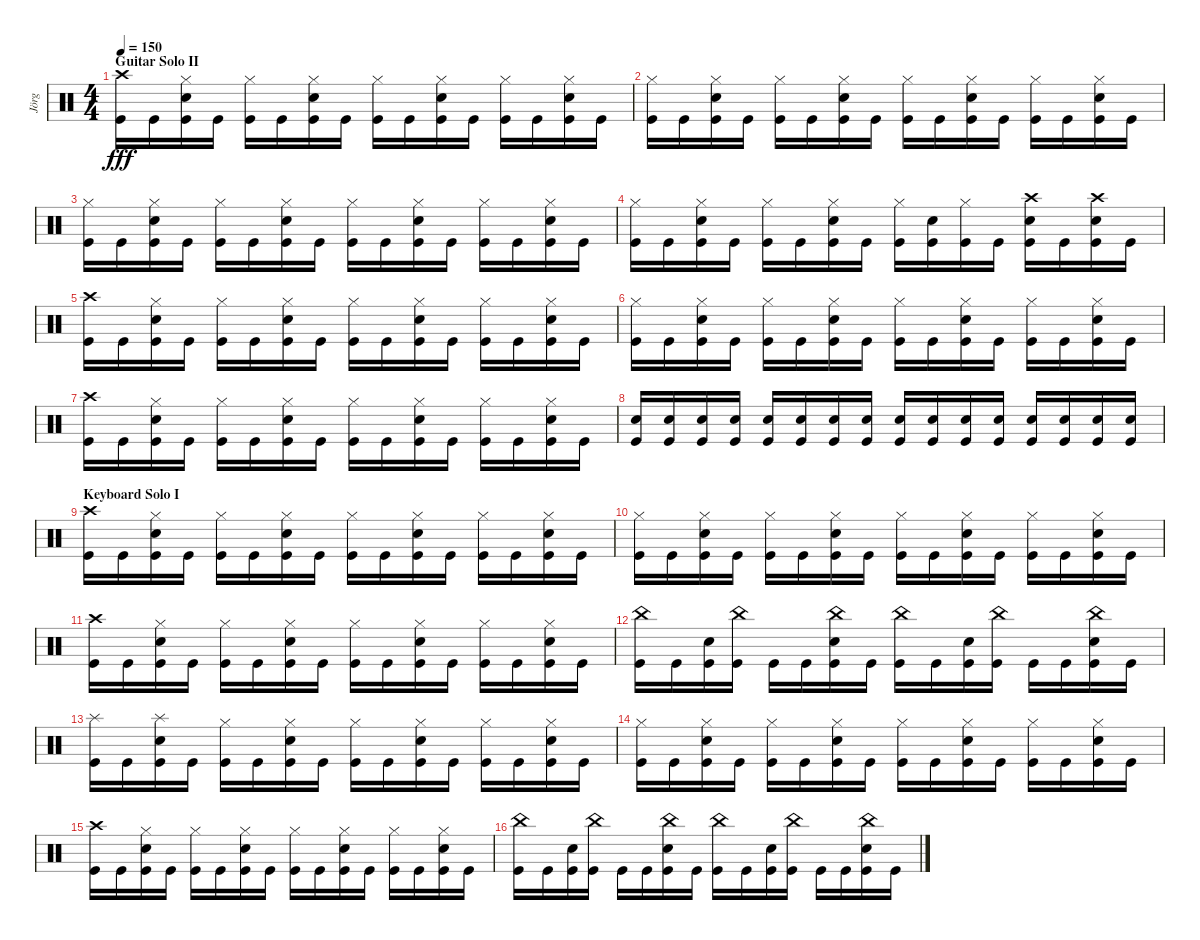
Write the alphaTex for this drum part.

\track ("Jörg" "Jörg") {instrument percussion}
\staff {score}
\articulation defaults
\ts (4 4)
\section ("" "Guitar Solo II")
\tempo 150
\clef neutral
\ks c
("Crash high (hit)" "Kick (hit)").16{dy fff} "Kick (hit)".16 ("Snare (hit) 2" "Hi-Hat (closed)" "Kick (hit)").16 "Kick (hit)".16 ("Hi-Hat (closed)" "Kick (hit)").16 "Kick (hit)".16 ("Snare (hit) 2" "Hi-Hat (closed)" "Kick (hit)").16 "Kick (hit)".16 ("Hi-Hat (closed)" "Kick (hit)").16 "Kick (hit)".16 ("Snare (hit) 2" "Hi-Hat (closed)" "Kick (hit)").16 "Kick (hit)".16 ("Hi-Hat (closed)" "Kick (hit)").16 "Kick (hit)".16 ("Snare (hit) 2" "Hi-Hat (closed)" "Kick (hit)").16 "Kick (hit)".16 |
("Hi-Hat (closed)" "Kick (hit)").16 "Kick (hit)".16 ("Snare (hit) 2" "Hi-Hat (closed)" "Kick (hit)").16 "Kick (hit)".16 ("Hi-Hat (closed)" "Kick (hit)").16 "Kick (hit)".16 ("Snare (hit) 2" "Hi-Hat (closed)" "Kick (hit)").16 "Kick (hit)".16 ("Hi-Hat (closed)" "Kick (hit)").16 "Kick (hit)".16 ("Snare (hit) 2" "Hi-Hat (closed)" "Kick (hit)").16 "Kick (hit)".16 ("Hi-Hat (closed)" "Kick (hit)").16 "Kick (hit)".16 ("Snare (hit) 2" "Hi-Hat (closed)" "Kick (hit)").16 "Kick (hit)".16 |
("Hi-Hat (closed)" "Kick (hit)").16 "Kick (hit)".16 ("Snare (hit) 2" "Hi-Hat (closed)" "Kick (hit)").16 "Kick (hit)".16 ("Hi-Hat (closed)" "Kick (hit)").16 "Kick (hit)".16 ("Snare (hit) 2" "Hi-Hat (closed)" "Kick (hit)").16 "Kick (hit)".16 ("Hi-Hat (closed)" "Kick (hit)").16 "Kick (hit)".16 ("Snare (hit) 2" "Hi-Hat (closed)" "Kick (hit)").16 "Kick (hit)".16 ("Hi-Hat (closed)" "Kick (hit)").16 "Kick (hit)".16 ("Snare (hit) 2" "Hi-Hat (closed)" "Kick (hit)").16 "Kick (hit)".16 |
("Hi-Hat (closed)" "Kick (hit)").16 "Kick (hit)".16 ("Snare (hit) 2" "Hi-Hat (closed)" "Kick (hit)").16 "Kick (hit)".16 ("Hi-Hat (closed)" "Kick (hit)").16 "Kick (hit)".16 ("Snare (hit) 2" "Hi-Hat (closed)" "Kick (hit)").16 "Kick (hit)".16 ("Kick (hit)" "Hi-Hat (closed)").16 ("Kick (hit)" "Snare (hit) 2").16 ("Hi-Hat (closed)" "Kick (hit)").16 "Kick (hit)".16 ("Snare (hit) 2" "Crash high (hit)" "Kick (hit)").16 "Kick (hit)".16 ("Crash high (hit)" "Snare (hit) 2" "Kick (hit)").16 "Kick (hit)".16 |
("Crash high (hit)" "Kick (hit)").16 "Kick (hit)".16 ("Snare (hit) 2" "Hi-Hat (closed)" "Kick (hit)").16 "Kick (hit)".16 ("Hi-Hat (closed)" "Kick (hit)").16 "Kick (hit)".16 ("Snare (hit) 2" "Hi-Hat (closed)" "Kick (hit)").16 "Kick (hit)".16 ("Hi-Hat (closed)" "Kick (hit)").16 "Kick (hit)".16 ("Snare (hit) 2" "Hi-Hat (closed)" "Kick (hit)").16 "Kick (hit)".16 ("Hi-Hat (closed)" "Kick (hit)").16 "Kick (hit)".16 ("Snare (hit) 2" "Hi-Hat (closed)" "Kick (hit)").16 "Kick (hit)".16 |
("Hi-Hat (closed)" "Kick (hit)").16 "Kick (hit)".16 ("Snare (hit) 2" "Hi-Hat (closed)" "Kick (hit)").16 "Kick (hit)".16 ("Hi-Hat (closed)" "Kick (hit)").16 "Kick (hit)".16 ("Snare (hit) 2" "Hi-Hat (closed)" "Kick (hit)").16 "Kick (hit)".16 ("Hi-Hat (closed)" "Kick (hit)").16 "Kick (hit)".16 ("Snare (hit) 2" "Hi-Hat (closed)" "Kick (hit)").16 "Kick (hit)".16 ("Hi-Hat (closed)" "Kick (hit)").16 "Kick (hit)".16 ("Snare (hit) 2" "Hi-Hat (closed)" "Kick (hit)").16 "Kick (hit)".16 |
("Crash high (hit)" "Kick (hit)").16 "Kick (hit)".16 ("Snare (hit) 2" "Hi-Hat (closed)" "Kick (hit)").16 "Kick (hit)".16 ("Hi-Hat (closed)" "Kick (hit)").16 "Kick (hit)".16 ("Snare (hit) 2" "Hi-Hat (closed)" "Kick (hit)").16 "Kick (hit)".16 ("Hi-Hat (closed)" "Kick (hit)").16 "Kick (hit)".16 ("Snare (hit) 2" "Hi-Hat (closed)" "Kick (hit)").16 "Kick (hit)".16 ("Hi-Hat (closed)" "Kick (hit)").16 "Kick (hit)".16 ("Snare (hit) 2" "Hi-Hat (closed)" "Kick (hit)").16 "Kick (hit)".16 |
("Snare (hit) 2" "Kick (hit)").16 ("Snare (hit) 2" "Kick (hit)").16 ("Snare (hit) 2" "Kick (hit)").16 ("Snare (hit) 2" "Kick (hit)").16 ("Snare (hit) 2" "Kick (hit)").16 ("Snare (hit) 2" "Kick (hit)").16 ("Snare (hit) 2" "Kick (hit)").16 ("Snare (hit) 2" "Kick (hit)").16 ("Snare (hit) 2" "Kick (hit)").16 ("Snare (hit) 2" "Kick (hit)").16 ("Snare (hit) 2" "Kick (hit)").16 ("Snare (hit) 2" "Kick (hit)").16 ("Snare (hit) 2" "Kick (hit)").16 ("Snare (hit) 2" "Kick (hit)").16 ("Snare (hit) 2" "Kick (hit)").16 ("Snare (hit) 2" "Kick (hit)").16 |
\section ("" "Keyboard Solo I")
("Crash high (hit)" "Kick (hit)").16 "Kick (hit)".16 ("Snare (hit) 2" "Hi-Hat (closed)" "Kick (hit)").16 "Kick (hit)".16 ("Hi-Hat (closed)" "Kick (hit)").16 "Kick (hit)".16 ("Snare (hit) 2" "Hi-Hat (closed)" "Kick (hit)").16 "Kick (hit)".16 ("Hi-Hat (closed)" "Kick (hit)").16 "Kick (hit)".16 ("Snare (hit) 2" "Hi-Hat (closed)" "Kick (hit)").16 "Kick (hit)".16 ("Hi-Hat (closed)" "Kick (hit)").16 "Kick (hit)".16 ("Snare (hit) 2" "Hi-Hat (closed)" "Kick (hit)").16 "Kick (hit)".16 |
("Hi-Hat (closed)" "Kick (hit)").16 "Kick (hit)".16 ("Snare (hit) 2" "Hi-Hat (closed)" "Kick (hit)").16 "Kick (hit)".16 ("Hi-Hat (closed)" "Kick (hit)").16 "Kick (hit)".16 ("Snare (hit) 2" "Hi-Hat (closed)" "Kick (hit)").16 "Kick (hit)".16 ("Hi-Hat (closed)" "Kick (hit)").16 "Kick (hit)".16 ("Snare (hit) 2" "Hi-Hat (closed)" "Kick (hit)").16 "Kick (hit)".16 ("Hi-Hat (closed)" "Kick (hit)").16 "Kick (hit)".16 ("Snare (hit) 2" "Hi-Hat (closed)" "Kick (hit)").16 "Kick (hit)".16 |
("Crash high (hit)" "Kick (hit)").16 "Kick (hit)".16 ("Snare (hit) 2" "Hi-Hat (closed)" "Kick (hit)").16 "Kick (hit)".16 ("Hi-Hat (closed)" "Kick (hit)").16 "Kick (hit)".16 ("Snare (hit) 2" "Hi-Hat (closed)" "Kick (hit)").16 "Kick (hit)".16 ("Hi-Hat (closed)" "Kick (hit)").16 "Kick (hit)".16 ("Snare (hit) 2" "Hi-Hat (closed)" "Kick (hit)").16 "Kick (hit)".16 ("Hi-Hat (closed)" "Kick (hit)").16 "Kick (hit)".16 ("Snare (hit) 2" "Hi-Hat (closed)" "Kick (hit)").16 "Kick (hit)".16 |
("China (hit)" "Kick (hit)").16 "Kick (hit)".16 ("Snare (hit) 2" "Kick (hit)").16 ("China (hit)" "Kick (hit)").16 "Kick (hit)".16 "Kick (hit)".16 ("China (hit)" "Snare (hit) 2" "Kick (hit)").16 "Kick (hit)".16 ("China (hit)" "Kick (hit)").16 "Kick (hit)".16 ("Snare (hit) 2" "Kick (hit)").16 ("China (hit)" "Kick (hit)").16 "Kick (hit)".16 "Kick (hit)".16 ("China (hit)" "Snare (hit) 2" "Kick (hit)").16 "Kick (hit)".16 |
("Splash (hit)" "Kick (hit)").16 "Kick (hit)".16 ("Splash (hit)" "Snare (hit) 2" "Kick (hit)").16 "Kick (hit)".16 ("Hi-Hat (closed)" "Kick (hit)").16 "Kick (hit)".16 ("Snare (hit) 2" "Hi-Hat (closed)" "Kick (hit)").16 "Kick (hit)".16 ("Hi-Hat (closed)" "Kick (hit)").16 "Kick (hit)".16 ("Snare (hit) 2" "Hi-Hat (closed)" "Kick (hit)").16 "Kick (hit)".16 ("Hi-Hat (closed)" "Kick (hit)").16 "Kick (hit)".16 ("Snare (hit) 2" "Hi-Hat (closed)" "Kick (hit)").16 "Kick (hit)".16 |
("Hi-Hat (closed)" "Kick (hit)").16 "Kick (hit)".16 ("Snare (hit) 2" "Hi-Hat (closed)" "Kick (hit)").16 "Kick (hit)".16 ("Hi-Hat (closed)" "Kick (hit)").16 "Kick (hit)".16 ("Snare (hit) 2" "Hi-Hat (closed)" "Kick (hit)").16 "Kick (hit)".16 ("Hi-Hat (closed)" "Kick (hit)").16 "Kick (hit)".16 ("Snare (hit) 2" "Hi-Hat (closed)" "Kick (hit)").16 "Kick (hit)".16 ("Hi-Hat (closed)" "Kick (hit)").16 "Kick (hit)".16 ("Snare (hit) 2" "Hi-Hat (closed)" "Kick (hit)").16 "Kick (hit)".16 |
("Crash high (hit)" "Kick (hit)").16 "Kick (hit)".16 ("Snare (hit) 2" "Hi-Hat (closed)" "Kick (hit)").16 "Kick (hit)".16 ("Hi-Hat (closed)" "Kick (hit)").16 "Kick (hit)".16 ("Snare (hit) 2" "Hi-Hat (closed)" "Kick (hit)").16 "Kick (hit)".16 ("Hi-Hat (closed)" "Kick (hit)").16 "Kick (hit)".16 ("Snare (hit) 2" "Hi-Hat (closed)" "Kick (hit)").16 "Kick (hit)".16 ("Hi-Hat (closed)" "Kick (hit)").16 "Kick (hit)".16 ("Snare (hit) 2" "Hi-Hat (closed)" "Kick (hit)").16 "Kick (hit)".16 |
("China (hit)" "Kick (hit)").16 "Kick (hit)".16 ("Snare (hit) 2" "Kick (hit)").16 ("China (hit)" "Kick (hit)").16 "Kick (hit)".16 "Kick (hit)".16 ("China (hit)" "Snare (hit) 2" "Kick (hit)").16 "Kick (hit)".16 ("China (hit)" "Kick (hit)").16 "Kick (hit)".16 ("Snare (hit) 2" "Kick (hit)").16 ("China (hit)" "Kick (hit)").16 "Kick (hit)".16 "Kick (hit)".16 ("China (hit)" "Snare (hit) 2" "Kick (hit)").16 "Kick (hit)".16
